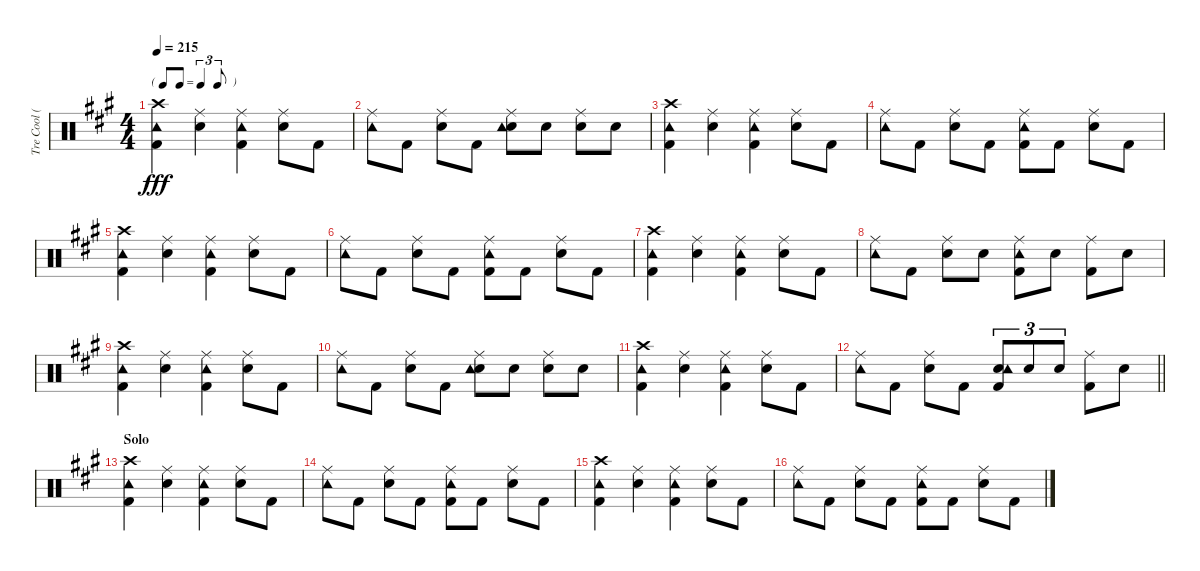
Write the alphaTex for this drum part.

\track ("Tre Cool (Drums)" "Tre Cool (") {instrument percussion}
\staff {score}
\articulation defaults
\ts (4 4)
\tf triplet8th
\tempo 215
\clef neutral
\ks a
("Crash high (hit)" "Kick (hit) 2" "Tambourine (hit)").4{dy fff} ("Ride (middle)" "Electric Snare (hit)").4 ("Ride (middle)" "Kick (hit) 2" "Tambourine (hit)").4 ("Ride (middle)" "Electric Snare (hit)").8 "Kick (hit) 2".8 |
("Ride (middle)" "Tambourine (hit)").8 "Kick (hit) 2".8 ("Ride (middle)" "Electric Snare (hit)").8 "Kick (hit) 2".8 ("Ride (middle)" "Electric Snare (hit)" "Tambourine (hit)").8 "Electric Snare (hit)".8 ("Ride (middle)" "Electric Snare (hit)").8 "Electric Snare (hit)".8 |
("Crash high (hit)" "Kick (hit) 2" "Tambourine (hit)").4 ("Ride (middle)" "Electric Snare (hit)").4 ("Ride (middle)" "Kick (hit) 2" "Tambourine (hit)").4 ("Ride (middle)" "Electric Snare (hit)").8 "Kick (hit) 2".8 |
("Ride (middle)" "Tambourine (hit)").8 "Kick (hit) 2".8 ("Ride (middle)" "Electric Snare (hit)").8 "Kick (hit) 2".8 ("Ride (middle)" "Kick (hit) 2" "Tambourine (hit)").8 "Kick (hit) 2".8 ("Ride (middle)" "Electric Snare (hit)").8 "Kick (hit) 2".8 |
("Crash high (hit)" "Kick (hit) 2" "Tambourine (hit)").4 ("Ride (middle)" "Electric Snare (hit)").4 ("Ride (middle)" "Kick (hit) 2" "Tambourine (hit)").4 ("Ride (middle)" "Electric Snare (hit)").8 "Kick (hit) 2".8 |
("Ride (middle)" "Tambourine (hit)").8 "Kick (hit) 2".8 ("Ride (middle)" "Electric Snare (hit)").8 "Kick (hit) 2".8 ("Ride (middle)" "Kick (hit) 2" "Tambourine (hit)").8 "Kick (hit) 2".8 ("Ride (middle)" "Electric Snare (hit)").8 "Kick (hit) 2".8 |
("Crash high (hit)" "Kick (hit) 2" "Tambourine (hit)").4 ("Ride (middle)" "Electric Snare (hit)").4 ("Ride (middle)" "Kick (hit) 2" "Tambourine (hit)").4 ("Ride (middle)" "Electric Snare (hit)").8 "Kick (hit) 2".8 |
("Ride (middle)" "Tambourine (hit)").8 "Kick (hit) 2".8 ("Ride (middle)" "Electric Snare (hit)").8 "Electric Snare (hit)".8 ("Ride (middle)" "Kick (hit) 2" "Tambourine (hit)").8 "Electric Snare (hit)".8 ("Ride (middle)" "Kick (hit) 2").8 "Electric Snare (hit)".8 |
("Crash high (hit)" "Kick (hit) 2" "Tambourine (hit)").4 ("Ride (middle)" "Electric Snare (hit)").4 ("Ride (middle)" "Kick (hit) 2" "Tambourine (hit)").4 ("Ride (middle)" "Electric Snare (hit)").8 "Kick (hit) 2".8 |
("Ride (middle)" "Tambourine (hit)").8 "Kick (hit) 2".8 ("Ride (middle)" "Electric Snare (hit)").8 "Kick (hit) 2".8 ("Ride (middle)" "Electric Snare (hit)" "Tambourine (hit)").8 "Electric Snare (hit)".8 ("Ride (middle)" "Electric Snare (hit)").8 "Electric Snare (hit)".8 |
("Crash high (hit)" "Kick (hit) 2" "Tambourine (hit)").4 ("Ride (middle)" "Electric Snare (hit)").4 ("Ride (middle)" "Kick (hit) 2" "Tambourine (hit)").4 ("Ride (middle)" "Electric Snare (hit)").8 "Kick (hit) 2".8 |
\barLineRight lightlight
("Ride (middle)" "Tambourine (hit)").8 "Kick (hit) 2".8 ("Ride (middle)" "Electric Snare (hit)").8 "Kick (hit) 2".8 ("Kick (hit) 2" "Electric Snare (hit)" "Tambourine (hit)").8{tu (3 2)} "Electric Snare (hit)".8{tu (3 2)} "Electric Snare (hit)".8{tu (3 2)} ("Ride (middle)" "Kick (hit) 2").8 "Electric Snare (hit)".8 |
\section ("" "Solo")
("Crash high (hit)" "Kick (hit) 2" "Tambourine (hit)").4 ("Ride (middle)" "Electric Snare (hit)").4 ("Ride (middle)" "Kick (hit) 2" "Tambourine (hit)").4 ("Ride (middle)" "Electric Snare (hit)").8 "Kick (hit) 2".8 |
("Ride (middle)" "Tambourine (hit)").8 "Kick (hit) 2".8 ("Electric Snare (hit)" "Ride (middle)").8 "Kick (hit) 2".8 ("Kick (hit) 2" "Ride (middle)" "Tambourine (hit)").8 "Kick (hit) 2".8 ("Electric Snare (hit)" "Ride (middle)").8 "Kick (hit) 2".8 |
("Crash high (hit)" "Kick (hit) 2" "Tambourine (hit)").4 ("Ride (middle)" "Electric Snare (hit)").4 ("Ride (middle)" "Kick (hit) 2" "Tambourine (hit)").4 ("Ride (middle)" "Electric Snare (hit)").8 "Kick (hit) 2".8 |
("Ride (middle)" "Tambourine (hit)").8 "Kick (hit) 2".8 ("Electric Snare (hit)" "Ride (middle)").8 "Kick (hit) 2".8 ("Kick (hit) 2" "Ride (middle)" "Tambourine (hit)").8 "Kick (hit) 2".8 ("Electric Snare (hit)" "Ride (middle)").8 "Kick (hit) 2".8
